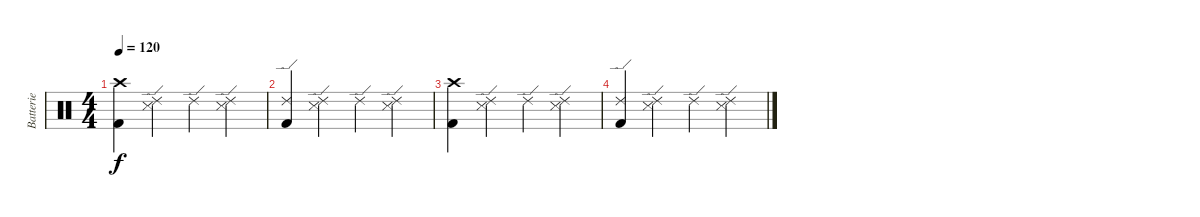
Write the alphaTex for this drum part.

\track ("Batterie" "Batterie") {instrument percussion}
\staff {score}
\articulation defaults
\ts (4 4)
\tempo 120
\clef neutral
\ks c
("Crash high (hit)" "Kick (hit) 2").4{dy f} ("Ride (edge) 2" "Snare (side stick) 3").4 "Ride (edge) 2".4 ("Ride (edge) 2" "Snare (side stick) 3").4 |
("Ride (edge) 2" "Kick (hit) 2").4 ("Ride (edge) 2" "Snare (side stick) 3").4 "Ride (edge) 2".4 ("Ride (edge) 2" "Snare (side stick) 3").4 |
("Crash high (hit)" "Kick (hit) 2").4 ("Ride (edge) 2" "Snare (side stick) 3").4 "Ride (edge) 2".4 ("Ride (edge) 2" "Snare (side stick) 3").4 |
("Ride (edge) 2" "Kick (hit) 2").4 ("Ride (edge) 2" "Snare (side stick) 3").4 "Ride (edge) 2".4 ("Ride (edge) 2" "Snare (side stick) 3").4
